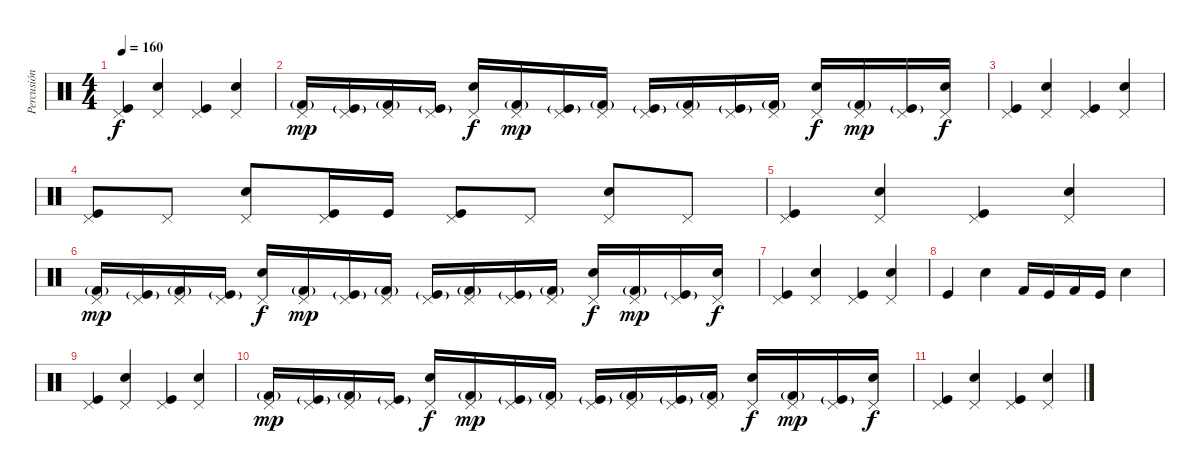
\track ("Percusión" "Percusión") {instrument percussion}
\staff {score}
\articulation defaults
\ts (4 4)
\tempo 160
\clef neutral
\ks c
("Kick (hit)" "Pedal Hi-Hat (hit)").4{dy f} ("Electric Snare (hit)" "Pedal Hi-Hat (hit)").4 ("Kick (hit)" "Pedal Hi-Hat (hit)").4 ("Electric Snare (hit)" "Pedal Hi-Hat (hit)").4 |
("Kick (hit) 2"{g} "Pedal Hi-Hat (hit)").16{dy mp} ("Kick (hit)"{g} "Pedal Hi-Hat (hit)").16 ("Kick (hit) 2"{g} "Pedal Hi-Hat (hit)").16 ("Kick (hit)"{g} "Pedal Hi-Hat (hit)").16 ("Electric Snare (hit)" "Pedal Hi-Hat (hit)").16{dy f} ("Kick (hit) 2"{g} "Pedal Hi-Hat (hit)").16{dy mp} ("Kick (hit)"{g} "Pedal Hi-Hat (hit)").16 ("Kick (hit) 2"{g} "Pedal Hi-Hat (hit)").16 ("Kick (hit)"{g} "Pedal Hi-Hat (hit)").16 ("Kick (hit) 2"{g} "Pedal Hi-Hat (hit)").16 ("Kick (hit)"{g} "Pedal Hi-Hat (hit)").16 ("Kick (hit) 2"{g} "Pedal Hi-Hat (hit)").16 ("Electric Snare (hit)" "Pedal Hi-Hat (hit)").16{dy f} ("Kick (hit) 2"{g} "Pedal Hi-Hat (hit)").16{dy mp} ("Kick (hit)"{g} "Pedal Hi-Hat (hit)").16 ("Electric Snare (hit)" "Pedal Hi-Hat (hit)").16{dy f} |
("Kick (hit)" "Pedal Hi-Hat (hit)").4 ("Electric Snare (hit)" "Pedal Hi-Hat (hit)").4 ("Kick (hit)" "Pedal Hi-Hat (hit)").4 ("Electric Snare (hit)" "Pedal Hi-Hat (hit)").4 |
("Kick (hit)" "Pedal Hi-Hat (hit)").8 "Pedal Hi-Hat (hit)".8 ("Electric Snare (hit)" "Pedal Hi-Hat (hit)").8 ("Kick (hit)" "Pedal Hi-Hat (hit)").16 "Kick (hit)".16 ("Kick (hit)" "Pedal Hi-Hat (hit)").8 "Pedal Hi-Hat (hit)".8 ("Electric Snare (hit)" "Pedal Hi-Hat (hit)").8 "Pedal Hi-Hat (hit)".8 |
("Kick (hit)" "Pedal Hi-Hat (hit)").4 ("Electric Snare (hit)" "Pedal Hi-Hat (hit)").4 ("Kick (hit)" "Pedal Hi-Hat (hit)").4 ("Electric Snare (hit)" "Pedal Hi-Hat (hit)").4 |
("Kick (hit) 2"{g} "Pedal Hi-Hat (hit)").16{dy mp} ("Kick (hit)"{g} "Pedal Hi-Hat (hit)").16 ("Kick (hit) 2"{g} "Pedal Hi-Hat (hit)").16 ("Kick (hit)"{g} "Pedal Hi-Hat (hit)").16 ("Electric Snare (hit)" "Pedal Hi-Hat (hit)").16{dy f} ("Kick (hit) 2"{g} "Pedal Hi-Hat (hit)").16{dy mp} ("Kick (hit)"{g} "Pedal Hi-Hat (hit)").16 ("Kick (hit) 2"{g} "Pedal Hi-Hat (hit)").16 ("Kick (hit)"{g} "Pedal Hi-Hat (hit)").16 ("Kick (hit) 2"{g} "Pedal Hi-Hat (hit)").16 ("Kick (hit)"{g} "Pedal Hi-Hat (hit)").16 ("Kick (hit) 2"{g} "Pedal Hi-Hat (hit)").16 ("Electric Snare (hit)" "Pedal Hi-Hat (hit)").16{dy f} ("Kick (hit) 2"{g} "Pedal Hi-Hat (hit)").16{dy mp} ("Kick (hit)"{g} "Pedal Hi-Hat (hit)").16 ("Electric Snare (hit)" "Pedal Hi-Hat (hit)").16{dy f} |
("Kick (hit)" "Pedal Hi-Hat (hit)").4 ("Electric Snare (hit)" "Pedal Hi-Hat (hit)").4 ("Kick (hit)" "Pedal Hi-Hat (hit)").4 ("Electric Snare (hit)" "Pedal Hi-Hat (hit)").4 |
"Kick (hit)".4 "Electric Snare (hit)".4 "Kick (hit) 2".16 "Kick (hit)".16 "Kick (hit) 2".16 "Kick (hit)".16 "Electric Snare (hit)".4 |
("Kick (hit)" "Pedal Hi-Hat (hit)").4 ("Electric Snare (hit)" "Pedal Hi-Hat (hit)").4 ("Kick (hit)" "Pedal Hi-Hat (hit)").4 ("Electric Snare (hit)" "Pedal Hi-Hat (hit)").4 |
("Kick (hit) 2"{g} "Pedal Hi-Hat (hit)").16{dy mp} ("Kick (hit)"{g} "Pedal Hi-Hat (hit)").16 ("Kick (hit) 2"{g} "Pedal Hi-Hat (hit)").16 ("Kick (hit)"{g} "Pedal Hi-Hat (hit)").16 ("Electric Snare (hit)" "Pedal Hi-Hat (hit)").16{dy f} ("Kick (hit) 2"{g} "Pedal Hi-Hat (hit)").16{dy mp} ("Kick (hit)"{g} "Pedal Hi-Hat (hit)").16 ("Kick (hit) 2"{g} "Pedal Hi-Hat (hit)").16 ("Kick (hit)"{g} "Pedal Hi-Hat (hit)").16 ("Kick (hit) 2"{g} "Pedal Hi-Hat (hit)").16 ("Kick (hit)"{g} "Pedal Hi-Hat (hit)").16 ("Kick (hit) 2"{g} "Pedal Hi-Hat (hit)").16 ("Electric Snare (hit)" "Pedal Hi-Hat (hit)").16{dy f} ("Kick (hit) 2"{g} "Pedal Hi-Hat (hit)").16{dy mp} ("Kick (hit)"{g} "Pedal Hi-Hat (hit)").16 ("Electric Snare (hit)" "Pedal Hi-Hat (hit)").16{dy f} |
("Kick (hit)" "Pedal Hi-Hat (hit)").4 ("Electric Snare (hit)" "Pedal Hi-Hat (hit)").4 ("Kick (hit)" "Pedal Hi-Hat (hit)").4 ("Electric Snare (hit)" "Pedal Hi-Hat (hit)").4
